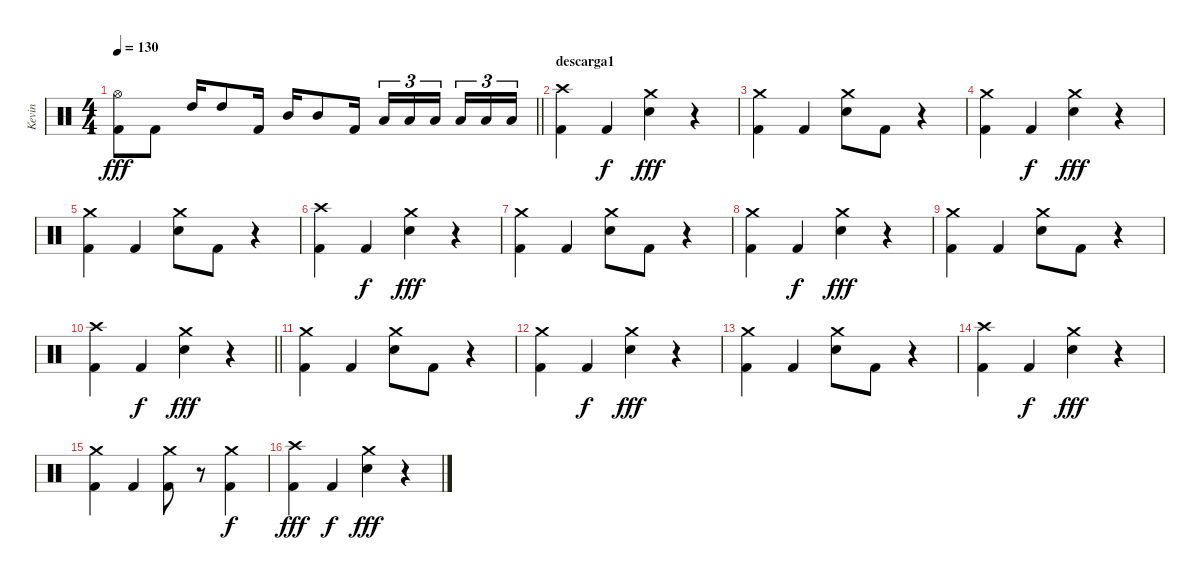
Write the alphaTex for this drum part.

\track ("Kevin" "Kevin") {instrument percussion}
\staff {score}
\articulation defaults
\ts (4 4)
\tempo 130
\clef neutral
\barLineRight lightlight
\ks c
("Hi-Hat (open)" "Kick (hit) 2").8{dy fff} "Kick (hit) 2".8 "High Tom (hit)".16 "High Tom (hit)".8 "Kick (hit) 2".16 "Mid Tom (hit)".16 "Mid Tom (hit)".8 "Kick (hit) 2".16 "Low Tom (hit)".16{tu (3 2)} "Low Tom (hit)".16{tu (3 2)} "Low Tom (hit)".16{tu (3 2) beam splitsecondary} "Low Tom (hit)".16{tu (3 2)} "Low Tom (hit)".16{tu (3 2)} "Low Tom (hit)".16{tu (3 2)} |
\section ("" "descarga1")
("Crash high (hit)" "Kick (hit) 2").4 "Kick (hit) 2".4{dy f} ("Crash medium (hit)" "Snare (hit) 2").4{dy fff} r.4 |
("Crash medium (hit)" "Kick (hit) 2").4 "Kick (hit) 2".4 ("Crash medium (hit)" "Snare (hit) 2").8 "Kick (hit) 2".8 r.4 |
("Crash medium (hit)" "Kick (hit) 2").4 "Kick (hit) 2".4{dy f} ("Crash medium (hit)" "Snare (hit) 2").4{dy fff} r.4 |
("Crash medium (hit)" "Kick (hit) 2").4 "Kick (hit) 2".4 ("Crash medium (hit)" "Snare (hit) 2").8 "Kick (hit) 2".8 r.4 |
("Crash high (hit)" "Kick (hit) 2").4 "Kick (hit) 2".4{dy f} ("Crash medium (hit)" "Snare (hit) 2").4{dy fff} r.4 |
("Crash medium (hit)" "Kick (hit) 2").4 "Kick (hit) 2".4 ("Crash medium (hit)" "Snare (hit) 2").8 "Kick (hit) 2".8 r.4 |
("Crash medium (hit)" "Kick (hit) 2").4 "Kick (hit) 2".4{dy f} ("Crash medium (hit)" "Snare (hit) 2").4{dy fff} r.4 |
("Crash medium (hit)" "Kick (hit) 2").4 "Kick (hit) 2".4 ("Crash medium (hit)" "Snare (hit) 2").8 "Kick (hit) 2".8 r.4 |
\barLineRight lightlight
("Crash high (hit)" "Kick (hit) 2").4 "Kick (hit) 2".4{dy f} ("Crash medium (hit)" "Snare (hit) 2").4{dy fff} r.4 |
("Crash medium (hit)" "Kick (hit) 2").4 "Kick (hit) 2".4 ("Crash medium (hit)" "Snare (hit) 2").8 "Kick (hit) 2".8 r.4 |
("Crash medium (hit)" "Kick (hit) 2").4 "Kick (hit) 2".4{dy f} ("Crash medium (hit)" "Snare (hit) 2").4{dy fff} r.4 |
("Crash medium (hit)" "Kick (hit) 2").4 "Kick (hit) 2".4 ("Crash medium (hit)" "Snare (hit) 2").8 "Kick (hit) 2".8 r.4 |
("Crash high (hit)" "Kick (hit) 2").4 "Kick (hit) 2".4{dy f} ("Crash medium (hit)" "Snare (hit) 2").4{dy fff} r.4 |
("Crash medium (hit)" "Kick (hit) 2").4 "Kick (hit) 2".4 ("Crash medium (hit)" "Kick (hit) 2").8 r.8 ("Crash medium (hit)" "Kick (hit) 2").4{dy f} |
("Crash high (hit)" "Kick (hit) 2").4{dy fff} "Kick (hit) 2".4{dy f} ("Crash medium (hit)" "Snare (hit) 2").4{dy fff} r.4
